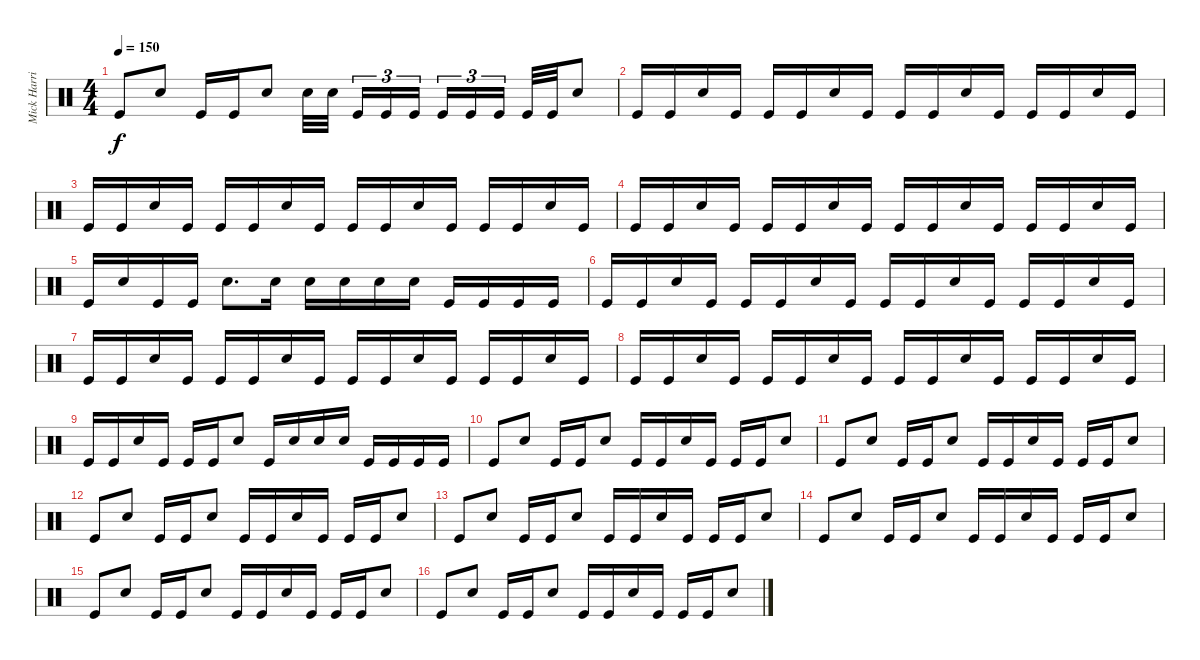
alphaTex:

\track ("Mick Harris" "Mick Harri") {instrument percussion}
\staff {score}
\articulation defaults
\ts (4 4)
\tempo 150
\clef neutral
\ks c "Kick (hit)".8{dy f} "Snare (hit) 2".8 "Kick (hit)".16 "Kick (hit)".16 "Snare (hit) 2".8 "Snare (hit) 2".32 "Snare (hit) 2".32{beam splitsecondary} "Kick (hit)".16{tu (3 2)} "Kick (hit)".16{tu (3 2)} "Kick (hit)".16{tu (3 2) beam splitsecondary} "Kick (hit)".16{tu (3 2)} "Kick (hit)".16{tu (3 2)} "Kick (hit)".16{tu (3 2) beam splitsecondary} "Kick (hit)".32 "Kick (hit)".32 "Snare (hit) 2".8
|
"Kick (hit)".16 "Kick (hit)".16 "Snare (hit) 2".16 "Kick (hit)".16 "Kick (hit)".16 "Kick (hit)".16 "Snare (hit) 2".16 "Kick (hit)".16 "Kick (hit)".16 "Kick (hit)".16 "Snare (hit) 2".16 "Kick (hit)".16 "Kick (hit)".16 "Kick (hit)".16 "Snare (hit) 2".16 "Kick (hit)".16 |
"Kick (hit)".16 "Kick (hit)".16 "Snare (hit) 2".16 "Kick (hit)".16 "Kick (hit)".16 "Kick (hit)".16 "Snare (hit) 2".16 "Kick (hit)".16 "Kick (hit)".16 "Kick (hit)".16 "Snare (hit) 2".16 "Kick (hit)".16 "Kick (hit)".16 "Kick (hit)".16 "Snare (hit) 2".16 "Kick (hit)".16 |
"Kick (hit)".16 "Kick (hit)".16 "Snare (hit) 2".16 "Kick (hit)".16 "Kick (hit)".16 "Kick (hit)".16 "Snare (hit) 2".16 "Kick (hit)".16 "Kick (hit)".16 "Kick (hit)".16 "Snare (hit) 2".16 "Kick (hit)".16 "Kick (hit)".16 "Kick (hit)".16 "Snare (hit) 2".16 "Kick (hit)".16 |
"Kick (hit)".16 "Snare (hit) 2".16 "Kick (hit)".16 "Kick (hit)".16 "Snare (hit) 2".8{d} "Snare (hit) 2".16 "Snare (hit) 2".16 "Snare (hit) 2".16 "Snare (hit) 2".16 "Snare (hit) 2".16 "Kick (hit)".16 "Kick (hit)".16 "Kick (hit)".16 "Kick (hit)".16 |
"Kick (hit)".16 "Kick (hit)".16 "Snare (hit) 2".16 "Kick (hit)".16 "Kick (hit)".16 "Kick (hit)".16 "Snare (hit) 2".16 "Kick (hit)".16 "Kick (hit)".16 "Kick (hit)".16 "Snare (hit) 2".16 "Kick (hit)".16 "Kick (hit)".16 "Kick (hit)".16 "Snare (hit) 2".16 "Kick (hit)".16 |
"Kick (hit)".16 "Kick (hit)".16 "Snare (hit) 2".16 "Kick (hit)".16 "Kick (hit)".16 "Kick (hit)".16 "Snare (hit) 2".16 "Kick (hit)".16 "Kick (hit)".16 "Kick (hit)".16 "Snare (hit) 2".16 "Kick (hit)".16 "Kick (hit)".16 "Kick (hit)".16 "Snare (hit) 2".16 "Kick (hit)".16 |
"Kick (hit)".16 "Kick (hit)".16 "Snare (hit) 2".16 "Kick (hit)".16 "Kick (hit)".16 "Kick (hit)".16 "Snare (hit) 2".16 "Kick (hit)".16 "Kick (hit)".16 "Kick (hit)".16 "Snare (hit) 2".16 "Kick (hit)".16 "Kick (hit)".16 "Kick (hit)".16 "Snare (hit) 2".16 "Kick (hit)".16 |
"Kick (hit)".16 "Kick (hit)".16 "Snare (hit) 2".16 "Kick (hit)".16 "Kick (hit)".16 "Kick (hit)".16 "Snare (hit) 2".8 "Kick (hit)".16 "Snare (hit) 2".16 "Snare (hit) 2".16 "Snare (hit) 2".16 "Kick (hit)".16 "Kick (hit)".16 "Kick (hit)".16 "Kick (hit)".16 |
"Kick (hit)".8 "Snare (hit) 2".8 "Kick (hit)".16 "Kick (hit)".16 "Snare (hit) 2".8 "Kick (hit)".16 "Kick (hit)".16 "Snare (hit) 2".16 "Kick (hit)".16 "Kick (hit)".16 "Kick (hit)".16 "Snare (hit) 2".8 |
"Kick (hit)".8 "Snare (hit) 2".8 "Kick (hit)".16 "Kick (hit)".16 "Snare (hit) 2".8 "Kick (hit)".16 "Kick (hit)".16 "Snare (hit) 2".16 "Kick (hit)".16 "Kick (hit)".16 "Kick (hit)".16 "Snare (hit) 2".8 |
"Kick (hit)".8 "Snare (hit) 2".8 "Kick (hit)".16 "Kick (hit)".16 "Snare (hit) 2".8 "Kick (hit)".16 "Kick (hit)".16 "Snare (hit) 2".16 "Kick (hit)".16 "Kick (hit)".16 "Kick (hit)".16 "Snare (hit) 2".8 |
"Kick (hit)".8 "Snare (hit) 2".8 "Kick (hit)".16 "Kick (hit)".16 "Snare (hit) 2".8 "Kick (hit)".16 "Kick (hit)".16 "Snare (hit) 2".16 "Kick (hit)".16 "Kick (hit)".16 "Kick (hit)".16 "Snare (hit) 2".8 |
"Kick (hit)".8 "Snare (hit) 2".8 "Kick (hit)".16 "Kick (hit)".16 "Snare (hit) 2".8 "Kick (hit)".16 "Kick (hit)".16 "Snare (hit) 2".16 "Kick (hit)".16 "Kick (hit)".16 "Kick (hit)".16 "Snare (hit) 2".8 |
"Kick (hit)".8 "Snare (hit) 2".8 "Kick (hit)".16 "Kick (hit)".16 "Snare (hit) 2".8 "Kick (hit)".16 "Kick (hit)".16 "Snare (hit) 2".16 "Kick (hit)".16 "Kick (hit)".16 "Kick (hit)".16 "Snare (hit) 2".8 |
"Kick (hit)".8 "Snare (hit) 2".8 "Kick (hit)".16 "Kick (hit)".16 "Snare (hit) 2".8 "Kick (hit)".16 "Kick (hit)".16 "Snare (hit) 2".16 "Kick (hit)".16 "Kick (hit)".16 "Kick (hit)".16 "Snare (hit) 2".8
